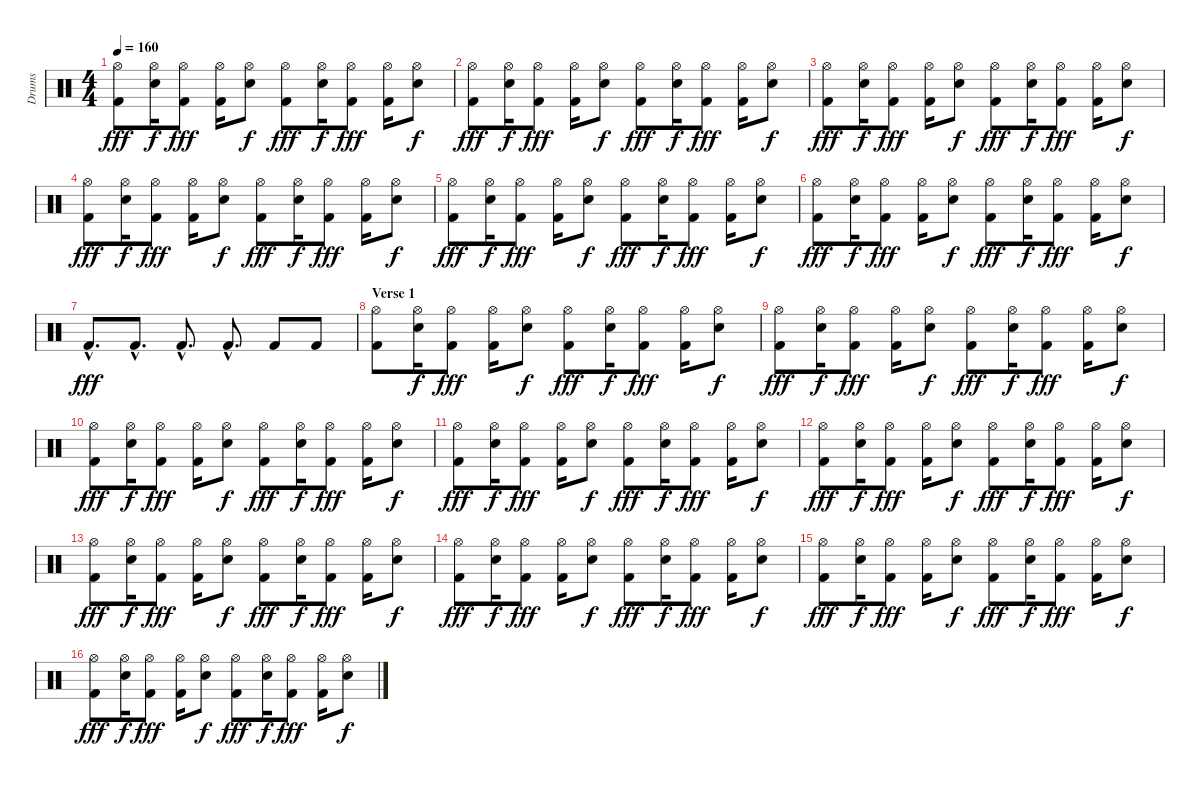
\track ("Drums" "Drums") {instrument percussion}
\staff {score}
\articulation defaults
\ts (4 4)
\tempo 160
\clef neutral
\ks c
("Hi-Hat (open)" "Kick (hit) 2").8{dy fff} ("Hi-Hat (open)" "Electric Snare (hit)").16{dy f} ("Hi-Hat (open)" "Kick (hit) 2").8{dy fff} ("Hi-Hat (open)" "Kick (hit) 2").16 ("Hi-Hat (open)" "Electric Snare (hit)").8{dy f} ("Hi-Hat (open)" "Kick (hit) 2").8{dy fff} ("Hi-Hat (open)" "Electric Snare (hit)").16{dy f} ("Hi-Hat (open)" "Kick (hit) 2").8{dy fff} ("Hi-Hat (open)" "Kick (hit) 2").16 ("Hi-Hat (open)" "Electric Snare (hit)").8{dy f} |
("Hi-Hat (open)" "Kick (hit) 2").8{dy fff} ("Hi-Hat (open)" "Electric Snare (hit)").16{dy f} ("Hi-Hat (open)" "Kick (hit) 2").8{dy fff} ("Hi-Hat (open)" "Kick (hit) 2").16 ("Hi-Hat (open)" "Electric Snare (hit)").8{dy f} ("Hi-Hat (open)" "Kick (hit) 2").8{dy fff} ("Hi-Hat (open)" "Electric Snare (hit)").16{dy f} ("Hi-Hat (open)" "Kick (hit) 2").8{dy fff} ("Hi-Hat (open)" "Kick (hit) 2").16 ("Hi-Hat (open)" "Electric Snare (hit)").8{dy f} |
("Hi-Hat (open)" "Kick (hit) 2").8{dy fff} ("Hi-Hat (open)" "Electric Snare (hit)").16{dy f} ("Hi-Hat (open)" "Kick (hit) 2").8{dy fff} ("Hi-Hat (open)" "Kick (hit) 2").16 ("Hi-Hat (open)" "Electric Snare (hit)").8{dy f} ("Hi-Hat (open)" "Kick (hit) 2").8{dy fff} ("Hi-Hat (open)" "Electric Snare (hit)").16{dy f} ("Hi-Hat (open)" "Kick (hit) 2").8{dy fff} ("Hi-Hat (open)" "Kick (hit) 2").16 ("Hi-Hat (open)" "Electric Snare (hit)").8{dy f} |
("Hi-Hat (open)" "Kick (hit) 2").8{dy fff} ("Hi-Hat (open)" "Electric Snare (hit)").16{dy f} ("Hi-Hat (open)" "Kick (hit) 2").8{dy fff} ("Hi-Hat (open)" "Kick (hit) 2").16 ("Hi-Hat (open)" "Electric Snare (hit)").8{dy f} ("Hi-Hat (open)" "Kick (hit) 2").8{dy fff} ("Hi-Hat (open)" "Electric Snare (hit)").16{dy f} ("Hi-Hat (open)" "Kick (hit) 2").8{dy fff} ("Hi-Hat (open)" "Kick (hit) 2").16 ("Hi-Hat (open)" "Electric Snare (hit)").8{dy f} |
("Hi-Hat (open)" "Kick (hit) 2").8{dy fff} ("Hi-Hat (open)" "Electric Snare (hit)").16{dy f} ("Hi-Hat (open)" "Kick (hit) 2").8{dy fff} ("Hi-Hat (open)" "Kick (hit) 2").16 ("Hi-Hat (open)" "Electric Snare (hit)").8{dy f} ("Hi-Hat (open)" "Kick (hit) 2").8{dy fff} ("Hi-Hat (open)" "Electric Snare (hit)").16{dy f} ("Hi-Hat (open)" "Kick (hit) 2").8{dy fff} ("Hi-Hat (open)" "Kick (hit) 2").16 ("Hi-Hat (open)" "Electric Snare (hit)").8{dy f} |
("Hi-Hat (open)" "Kick (hit) 2").8{dy fff} ("Hi-Hat (open)" "Electric Snare (hit)").16{dy f} ("Hi-Hat (open)" "Kick (hit) 2").8{dy fff} ("Hi-Hat (open)" "Kick (hit) 2").16 ("Hi-Hat (open)" "Electric Snare (hit)").8{dy f} ("Hi-Hat (open)" "Kick (hit) 2").8{dy fff} ("Hi-Hat (open)" "Electric Snare (hit)").16{dy f} ("Hi-Hat (open)" "Kick (hit) 2").8{dy fff} ("Hi-Hat (open)" "Kick (hit) 2").16 ("Hi-Hat (open)" "Electric Snare (hit)").8{dy f} |
"Kick (hit) 2"{hac}.8{d dy fff} "Kick (hit) 2"{hac}.8{d} "Kick (hit) 2"{hac}.8{d} "Kick (hit) 2"{hac}.8{d} "Kick (hit) 2".8 "Kick (hit) 2".8 |
\section ("" "Verse 1")
("Hi-Hat (open)" "Kick (hit) 2").8 ("Hi-Hat (open)" "Electric Snare (hit)").16{dy f} ("Hi-Hat (open)" "Kick (hit) 2").8{dy fff} ("Hi-Hat (open)" "Kick (hit) 2").16 ("Hi-Hat (open)" "Electric Snare (hit)").8{dy f} ("Hi-Hat (open)" "Kick (hit) 2").8{dy fff} ("Hi-Hat (open)" "Electric Snare (hit)").16{dy f} ("Hi-Hat (open)" "Kick (hit) 2").8{dy fff} ("Hi-Hat (open)" "Kick (hit) 2").16 ("Hi-Hat (open)" "Electric Snare (hit)").8{dy f} |
("Hi-Hat (open)" "Kick (hit) 2").8{dy fff} ("Hi-Hat (open)" "Electric Snare (hit)").16{dy f} ("Hi-Hat (open)" "Kick (hit) 2").8{dy fff} ("Hi-Hat (open)" "Kick (hit) 2").16 ("Hi-Hat (open)" "Electric Snare (hit)").8{dy f} ("Hi-Hat (open)" "Kick (hit) 2").8{dy fff} ("Hi-Hat (open)" "Electric Snare (hit)").16{dy f} ("Hi-Hat (open)" "Kick (hit) 2").8{dy fff} ("Hi-Hat (open)" "Kick (hit) 2").16 ("Hi-Hat (open)" "Electric Snare (hit)").8{dy f} |
("Hi-Hat (open)" "Kick (hit) 2").8{dy fff} ("Hi-Hat (open)" "Electric Snare (hit)").16{dy f} ("Hi-Hat (open)" "Kick (hit) 2").8{dy fff} ("Hi-Hat (open)" "Kick (hit) 2").16 ("Hi-Hat (open)" "Electric Snare (hit)").8{dy f} ("Hi-Hat (open)" "Kick (hit) 2").8{dy fff} ("Hi-Hat (open)" "Electric Snare (hit)").16{dy f} ("Hi-Hat (open)" "Kick (hit) 2").8{dy fff} ("Hi-Hat (open)" "Kick (hit) 2").16 ("Hi-Hat (open)" "Electric Snare (hit)").8{dy f} |
("Hi-Hat (open)" "Kick (hit) 2").8{dy fff} ("Hi-Hat (open)" "Electric Snare (hit)").16{dy f} ("Hi-Hat (open)" "Kick (hit) 2").8{dy fff} ("Hi-Hat (open)" "Kick (hit) 2").16 ("Hi-Hat (open)" "Electric Snare (hit)").8{dy f} ("Hi-Hat (open)" "Kick (hit) 2").8{dy fff} ("Hi-Hat (open)" "Electric Snare (hit)").16{dy f} ("Hi-Hat (open)" "Kick (hit) 2").8{dy fff} ("Hi-Hat (open)" "Kick (hit) 2").16 ("Hi-Hat (open)" "Electric Snare (hit)").8{dy f} |
("Hi-Hat (open)" "Kick (hit) 2").8{dy fff} ("Hi-Hat (open)" "Electric Snare (hit)").16{dy f} ("Hi-Hat (open)" "Kick (hit) 2").8{dy fff} ("Hi-Hat (open)" "Kick (hit) 2").16 ("Hi-Hat (open)" "Electric Snare (hit)").8{dy f} ("Hi-Hat (open)" "Kick (hit) 2").8{dy fff} ("Hi-Hat (open)" "Electric Snare (hit)").16{dy f} ("Hi-Hat (open)" "Kick (hit) 2").8{dy fff} ("Hi-Hat (open)" "Kick (hit) 2").16 ("Hi-Hat (open)" "Electric Snare (hit)").8{dy f} |
("Hi-Hat (open)" "Kick (hit) 2").8{dy fff} ("Hi-Hat (open)" "Electric Snare (hit)").16{dy f} ("Hi-Hat (open)" "Kick (hit) 2").8{dy fff} ("Hi-Hat (open)" "Kick (hit) 2").16 ("Hi-Hat (open)" "Electric Snare (hit)").8{dy f} ("Hi-Hat (open)" "Kick (hit) 2").8{dy fff} ("Hi-Hat (open)" "Electric Snare (hit)").16{dy f} ("Hi-Hat (open)" "Kick (hit) 2").8{dy fff} ("Hi-Hat (open)" "Kick (hit) 2").16 ("Hi-Hat (open)" "Electric Snare (hit)").8{dy f} |
("Hi-Hat (open)" "Kick (hit) 2").8{dy fff} ("Hi-Hat (open)" "Electric Snare (hit)").16{dy f} ("Hi-Hat (open)" "Kick (hit) 2").8{dy fff} ("Hi-Hat (open)" "Kick (hit) 2").16 ("Hi-Hat (open)" "Electric Snare (hit)").8{dy f} ("Hi-Hat (open)" "Kick (hit) 2").8{dy fff} ("Hi-Hat (open)" "Electric Snare (hit)").16{dy f} ("Hi-Hat (open)" "Kick (hit) 2").8{dy fff} ("Hi-Hat (open)" "Kick (hit) 2").16 ("Hi-Hat (open)" "Electric Snare (hit)").8{dy f} |
("Hi-Hat (open)" "Kick (hit) 2").8{dy fff} ("Hi-Hat (open)" "Electric Snare (hit)").16{dy f} ("Hi-Hat (open)" "Kick (hit) 2").8{dy fff} ("Hi-Hat (open)" "Kick (hit) 2").16 ("Hi-Hat (open)" "Electric Snare (hit)").8{dy f} ("Hi-Hat (open)" "Kick (hit) 2").8{dy fff} ("Hi-Hat (open)" "Electric Snare (hit)").16{dy f} ("Hi-Hat (open)" "Kick (hit) 2").8{dy fff} ("Hi-Hat (open)" "Kick (hit) 2").16 ("Hi-Hat (open)" "Electric Snare (hit)").8{dy f} |
("Hi-Hat (open)" "Kick (hit) 2").8{dy fff} ("Hi-Hat (open)" "Electric Snare (hit)").16{dy f} ("Hi-Hat (open)" "Kick (hit) 2").8{dy fff} ("Hi-Hat (open)" "Kick (hit) 2").16 ("Hi-Hat (open)" "Electric Snare (hit)").8{dy f} ("Hi-Hat (open)" "Kick (hit) 2").8{dy fff} ("Hi-Hat (open)" "Electric Snare (hit)").16{dy f} ("Hi-Hat (open)" "Kick (hit) 2").8{dy fff} ("Hi-Hat (open)" "Kick (hit) 2").16 ("Hi-Hat (open)" "Electric Snare (hit)").8{dy f}
